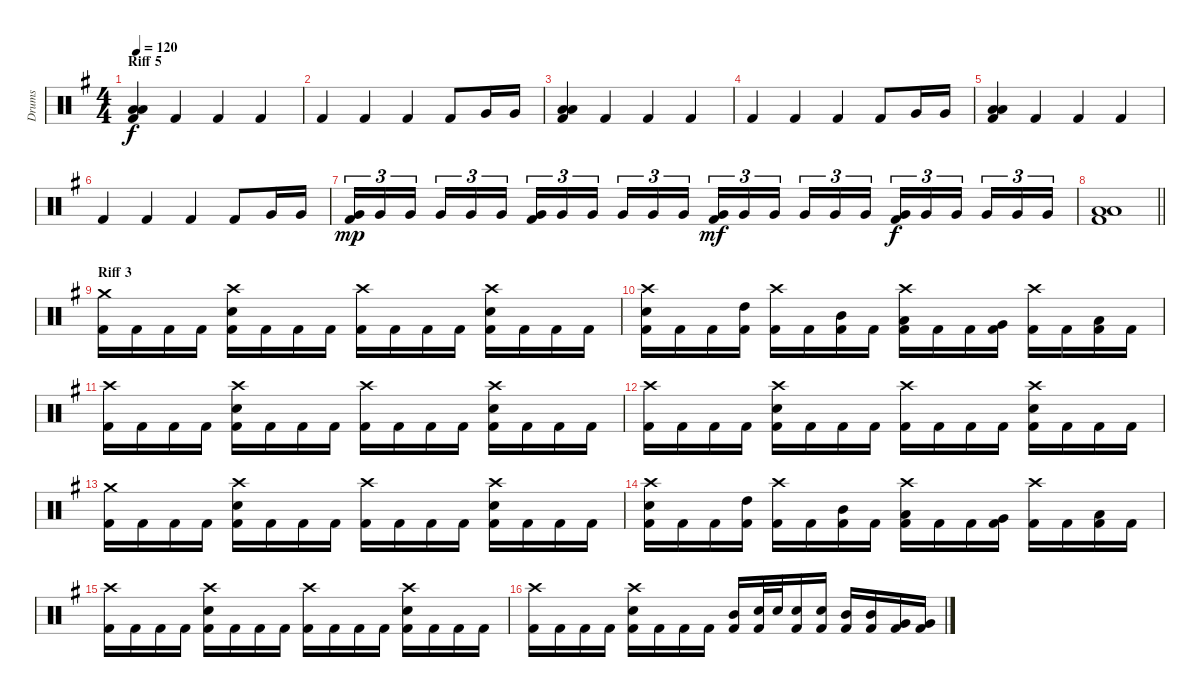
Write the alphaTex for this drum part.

\track ("Drums" "Drums") {instrument percussion}
\staff {score}
\articulation defaults
\ts (4 4)
\section ("" "Riff 5")
\tempo 120
\clef neutral
\ks eminor
("Kick (hit) 2" "Low Tom (hit)" "Low Floor Tom (hit)").4{dy f} "Kick (hit) 2".4 "Kick (hit) 2".4 "Kick (hit) 2".4 |
"Kick (hit) 2".4 "Kick (hit) 2".4 "Kick (hit) 2".4 "Kick (hit) 2".8 "Very Low Tom (hit)".16 "Very Low Tom (hit)".16 |
("Kick (hit) 2" "Low Tom (hit)" "Low Floor Tom (hit)").4 "Kick (hit) 2".4 "Kick (hit) 2".4 "Kick (hit) 2".4 |
"Kick (hit) 2".4 "Kick (hit) 2".4 "Kick (hit) 2".4 "Kick (hit) 2".8 "Very Low Tom (hit)".16 "Very Low Tom (hit)".16 |
("Kick (hit) 2" "Low Tom (hit)" "Low Floor Tom (hit)").4 "Kick (hit) 2".4 "Kick (hit) 2".4 "Kick (hit) 2".4 |
"Kick (hit) 2".4 "Kick (hit) 2".4 "Kick (hit) 2".4 "Kick (hit) 2".8 "Very Low Tom (hit)".16 "Very Low Tom (hit)".16 |
("Very Low Tom (hit)" "Kick (hit) 2").16{tu (3 2) dy mp} "Very Low Tom (hit)".16{tu (3 2)} "Very Low Tom (hit)".16{tu (3 2) beam splitsecondary} "Very Low Tom (hit)".16{tu (3 2)} "Very Low Tom (hit)".16{tu (3 2)} "Very Low Tom (hit)".16{tu (3 2)} ("Very Low Tom (hit)" "Kick (hit) 2").16{tu (3 2)} "Very Low Tom (hit)".16{tu (3 2)} "Very Low Tom (hit)".16{tu (3 2) beam splitsecondary} "Very Low Tom (hit)".16{tu (3 2)} "Very Low Tom (hit)".16{tu (3 2)} "Very Low Tom (hit)".16{tu (3 2)} ("Very Low Tom (hit)" "Kick (hit) 2").16{tu (3 2) dy mf} "Very Low Tom (hit)".16{tu (3 2)} "Very Low Tom (hit)".16{tu (3 2) beam splitsecondary} "Very Low Tom (hit)".16{tu (3 2)} "Very Low Tom (hit)".16{tu (3 2)} "Very Low Tom (hit)".16{tu (3 2)} ("Very Low Tom (hit)" "Kick (hit) 2").16{tu (3 2) dy f} "Very Low Tom (hit)".16{tu (3 2)} "Very Low Tom (hit)".16{tu (3 2) beam splitsecondary} "Very Low Tom (hit)".16{tu (3 2)} "Very Low Tom (hit)".16{tu (3 2)} "Very Low Tom (hit)".16{tu (3 2)} |
\barLineRight lightlight
("Low Tom (hit)" "Low Floor Tom (hit)" "Kick (hit) 2").1 |
\section ("" "Riff 3")
("Kick (hit) 2" "Crash medium (hit)").16 "Kick (hit) 2".16 "Kick (hit) 2".16 "Kick (hit) 2".16 ("Kick (hit) 2" "Electric Snare (hit)" "Crash high (hit)").16 "Kick (hit) 2".16 "Kick (hit) 2".16 "Kick (hit) 2".16 ("Kick (hit) 2" "Crash high (hit)").16 "Kick (hit) 2".16 "Kick (hit) 2".16 "Kick (hit) 2".16 ("Kick (hit) 2" "Crash high (hit)" "Electric Snare (hit)").16 "Kick (hit) 2".16 "Kick (hit) 2".16 "Kick (hit) 2".16 |
("Kick (hit) 2" "Crash high (hit)" "Electric Snare (hit)").16 "Kick (hit) 2".16 "Kick (hit) 2".16 ("Kick (hit) 2" "High Tom (hit)").16 ("Kick (hit) 2" "Crash high (hit)").16 "Kick (hit) 2".16 ("Kick (hit) 2" "Mid Tom (hit)").16 "Kick (hit) 2".16 ("Kick (hit) 2" "Crash high (hit)" "Low Tom (hit)").16 "Kick (hit) 2".16 "Kick (hit) 2".16 ("Kick (hit) 2" "Very Low Tom (hit)").16 ("Kick (hit) 2" "Crash high (hit)").16 "Kick (hit) 2".16 ("Kick (hit) 2" "Low Floor Tom (hit)").16 "Kick (hit) 2".16 |
("Kick (hit) 2" "Crash high (hit)").16 "Kick (hit) 2".16 "Kick (hit) 2".16 "Kick (hit) 2".16 ("Kick (hit) 2" "Electric Snare (hit)" "Crash high (hit)").16 "Kick (hit) 2".16 "Kick (hit) 2".16 "Kick (hit) 2".16 ("Kick (hit) 2" "Crash high (hit)").16 "Kick (hit) 2".16 "Kick (hit) 2".16 "Kick (hit) 2".16 ("Kick (hit) 2" "Crash high (hit)" "Electric Snare (hit)").16 "Kick (hit) 2".16 "Kick (hit) 2".16 "Kick (hit) 2".16 |
("Kick (hit) 2" "Crash high (hit)").16 "Kick (hit) 2".16 "Kick (hit) 2".16 "Kick (hit) 2".16 ("Kick (hit) 2" "Electric Snare (hit)" "Crash high (hit)").16 "Kick (hit) 2".16 "Kick (hit) 2".16 "Kick (hit) 2".16 ("Kick (hit) 2" "Crash high (hit)").16 "Kick (hit) 2".16 "Kick (hit) 2".16 "Kick (hit) 2".16 ("Kick (hit) 2" "Crash high (hit)" "Electric Snare (hit)").16 "Kick (hit) 2".16 "Kick (hit) 2".16 "Kick (hit) 2".16 |
("Kick (hit) 2" "Crash medium (hit)").16 "Kick (hit) 2".16 "Kick (hit) 2".16 "Kick (hit) 2".16 ("Kick (hit) 2" "Electric Snare (hit)" "Crash high (hit)").16 "Kick (hit) 2".16 "Kick (hit) 2".16 "Kick (hit) 2".16 ("Kick (hit) 2" "Crash high (hit)").16 "Kick (hit) 2".16 "Kick (hit) 2".16 "Kick (hit) 2".16 ("Kick (hit) 2" "Crash high (hit)" "Electric Snare (hit)").16 "Kick (hit) 2".16 "Kick (hit) 2".16 "Kick (hit) 2".16 |
("Kick (hit) 2" "Crash high (hit)" "Electric Snare (hit)").16 "Kick (hit) 2".16 "Kick (hit) 2".16 ("Kick (hit) 2" "High Tom (hit)").16 ("Kick (hit) 2" "Crash high (hit)").16 "Kick (hit) 2".16 ("Kick (hit) 2" "Mid Tom (hit)").16 "Kick (hit) 2".16 ("Kick (hit) 2" "Crash high (hit)" "Low Tom (hit)").16 "Kick (hit) 2".16 "Kick (hit) 2".16 ("Kick (hit) 2" "Very Low Tom (hit)").16 ("Kick (hit) 2" "Crash high (hit)").16 "Kick (hit) 2".16 ("Kick (hit) 2" "Low Floor Tom (hit)").16 "Kick (hit) 2".16 |
("Kick (hit) 2" "Crash high (hit)").16 "Kick (hit) 2".16 "Kick (hit) 2".16 "Kick (hit) 2".16 ("Kick (hit) 2" "Electric Snare (hit)" "Crash high (hit)").16 "Kick (hit) 2".16 "Kick (hit) 2".16 "Kick (hit) 2".16 ("Kick (hit) 2" "Crash high (hit)").16 "Kick (hit) 2".16 "Kick (hit) 2".16 "Kick (hit) 2".16 ("Kick (hit) 2" "Crash high (hit)" "Electric Snare (hit)").16 "Kick (hit) 2".16 "Kick (hit) 2".16 "Kick (hit) 2".16 |
("Kick (hit) 2" "Crash high (hit)").16 "Kick (hit) 2".16 "Kick (hit) 2".16 "Kick (hit) 2".16 ("Kick (hit) 2" "Electric Snare (hit)" "Crash high (hit)").16 "Kick (hit) 2".16 "Kick (hit) 2".16 "Kick (hit) 2".16 ("Kick (hit) 2" "Mid Tom (hit)").16 ("Electric Snare (hit)" "Kick (hit) 2").32 "Electric Snare (hit)".32 ("Electric Snare (hit)" "Kick (hit) 2").16 ("Electric Snare (hit)" "Kick (hit) 2").16 ("Mid Tom (hit)" "Kick (hit) 2").16 ("Mid Tom (hit)" "Kick (hit) 2").16 ("Very Low Tom (hit)" "Kick (hit) 2").16 ("Very Low Tom (hit)" "Kick (hit) 2").16
